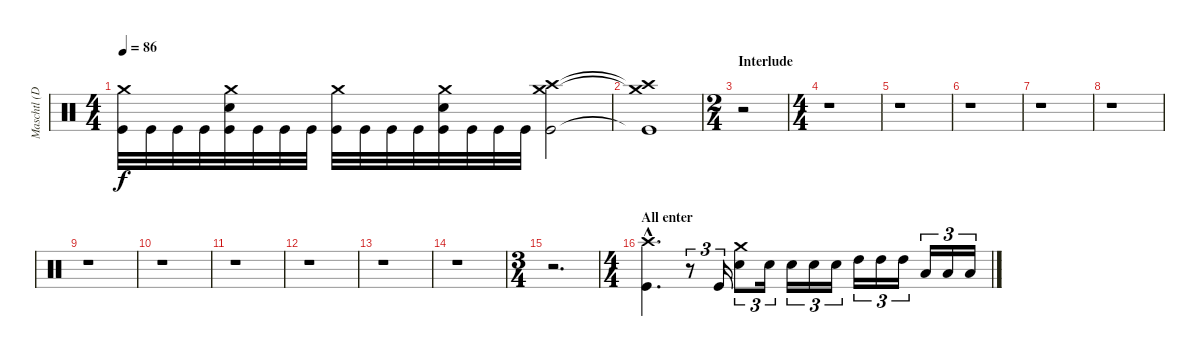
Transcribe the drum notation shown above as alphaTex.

\track ("Maschtl (Drums)" "Maschtl (D") {instrument percussion}
\staff {score}
\articulation defaults
\ts (4 4)
\tempo 86
\clef neutral
\ks c
("Crash medium (hit)" "Kick (hit)").32{dy f} "Kick (hit)".32 "Kick (hit)".32 "Kick (hit)".32 ("Crash medium (hit)" "Electric Snare (hit)" "Kick (hit)").32 "Kick (hit)".32 "Kick (hit)".32 "Kick (hit)".32 ("Crash medium (hit)" "Kick (hit)").32 "Kick (hit)".32 "Kick (hit)".32 "Kick (hit)".32 ("Crash medium (hit)" "Electric Snare (hit)" "Kick (hit)").32 "Kick (hit)".32 "Kick (hit)".32 "Kick (hit)".32 ("Crash high (hit)" "Crash medium (hit)" "Kick (hit)").2 |
("Crash high (hit)"{t} "Crash medium (hit)"{t} "Kick (hit)"{t}).1 |
\ts (2 4)
\section ("" "Interlude")
r.2 |
\ts (4 4)
r.1 |
r.1 |
r.1 |
r.1 |
r.1 |
r.1 |
r.1 |
r.1 |
r.1 |
r.1 |
r.1 |
\ts (3 4)
r.2{d} |
\ts (4 4)
\section ("" "All enter")
("Crash high (hit)"{hac} "Kick (hit)"{hac}).4{d} r.8{tu (3 2)} "Kick (hit)".16{tu (3 2)} ("Crash medium (hit)" "Electric Snare (hit)").8{tu (3 2)} "Electric Snare (hit)".16{tu (3 2)} "Electric Snare (hit)".16{tu (3 2)} "Electric Snare (hit)".16{tu (3 2)} "Electric Snare (hit)".16{tu (3 2)} "High Tom (hit)".16{tu (3 2)} "High Tom (hit)".16{tu (3 2)} "High Tom (hit)".16{tu (3 2)} "Low Tom (hit)".16{tu (3 2)} "Low Tom (hit)".16{tu (3 2)} "Low Tom (hit)".16{tu (3 2)}
